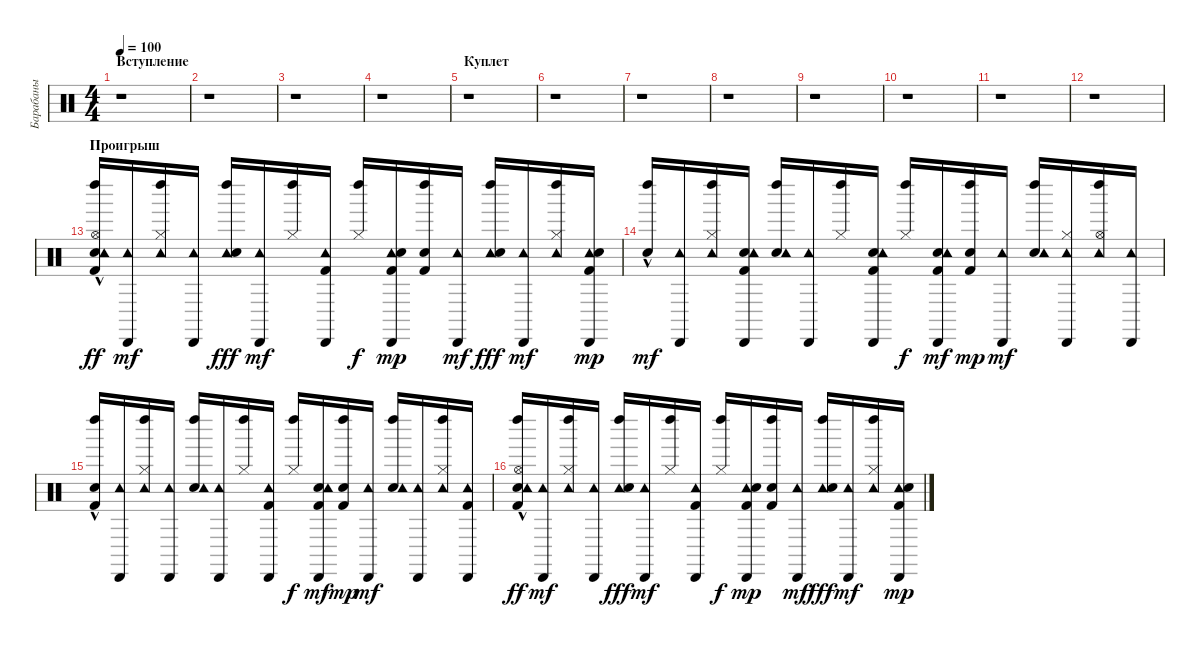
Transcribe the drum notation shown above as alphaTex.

\track ("Барабаны" "Барабаны") {instrument percussion}
\staff {score}
\articulation defaults
\ts (4 4)
\section ("" "Вступление")
\tempo 100
\clef neutral
\ks c
r.1{dy ff} |
r.1 |
r.1 |
r.1 |
\section ("" "Куплет")
r.1 |
r.1 |
r.1 |
r.1 |
r.1 |
r.1 |
r.1 |
r.1 |
\section ("" "Проигрыш")
("Electric Snare (hit)"{hac} "Tambourine (hit)" "Hi-Hat (open)" "Kick (hit) 2" "Left Maraca (hit)").16{balance 8} ("Tambourine (hit)" "Cabasa (hit)").16{dy mf} ("Tambourine (hit)" "Hi-Hat (closed)" "Left Maraca (hit)").16 ("Tambourine (hit)" "Cabasa (hit)").16 ("Tambourine (hit)" "Electric Snare (hit)" "Left Maraca (hit)").16{dy fff} ("Tambourine (hit)" "Cabasa (hit)").16{dy mf} ("Hi-Hat (closed)" "Left Maraca (hit)").16 ("Tambourine (hit)" "Cabasa (hit)" "Kick (hit) 2").16 ("Hi-Hat (closed)" "Left Maraca (hit)").16{dy f} ("Tambourine (hit)" "Electric Snare (hit)" "Kick (hit) 2" "Cabasa (hit)").16{dy mp} ("Electric Snare (hit)" "Left Maraca (hit)" "Kick (hit) 2").16 ("Tambourine (hit)" "Cabasa (hit)").16{dy mf} ("Tambourine (hit)" "Electric Snare (hit)" "Left Maraca (hit)").16{dy fff} ("Tambourine (hit)" "Cabasa (hit)").16{dy mf} ("Tambourine (hit)" "Hi-Hat (closed)" "Left Maraca (hit)").16 ("Tambourine (hit)" "Electric Snare (hit)" "Kick (hit) 2" "Cabasa (hit)").16{dy mp} |
("Electric Snare (hit)"{hac} "Left Maraca (hit)").16{dy mf balance 8} ("Cabasa (hit)" "Tambourine (hit)").16 ("Hi-Hat (closed)" "Left Maraca (hit)" "Tambourine (hit)").16 ("Electric Snare (hit)" "Kick (hit) 2" "Cabasa (hit)" "Tambourine (hit)").16 ("Electric Snare (hit)" "Left Maraca (hit)" "Tambourine (hit)").16 ("Cabasa (hit)" "Tambourine (hit)").16 ("Hi-Hat (closed)" "Left Maraca (hit)").16 ("Electric Snare (hit)" "Kick (hit) 2" "Cabasa (hit)" "Tambourine (hit)").16 ("Hi-Hat (closed)" "Left Maraca (hit)").16{dy f} ("Electric Snare (hit)" "Kick (hit) 2" "Cabasa (hit)" "Tambourine (hit)").16{dy mf} ("Electric Snare (hit)" "Left Maraca (hit)" "Kick (hit) 2").16{dy mp} ("Cabasa (hit)" "Tambourine (hit)").16{dy mf} ("Electric Snare (hit)" "Left Maraca (hit)" "Tambourine (hit)").16 ("Hi-Hat (closed)" "Cabasa (hit)" "Tambourine (hit)").16 ("Tambourine (hit)" "Hi-Hat (open)" "Left Maraca (hit)").16 ("Cabasa (hit)" "Tambourine (hit)").16 |
("Electric Snare (hit)"{hac} "Left Maraca (hit)" "Kick (hit) 2").16 ("Cabasa (hit)" "Tambourine (hit)").16 ("Hi-Hat (closed)" "Left Maraca (hit)" "Tambourine (hit)").16 ("Cabasa (hit)" "Tambourine (hit)").16 ("Electric Snare (hit)" "Left Maraca (hit)" "Tambourine (hit)").16 ("Cabasa (hit)" "Tambourine (hit)").16 ("Hi-Hat (closed)" "Left Maraca (hit)").16 ("Cabasa (hit)" "Kick (hit) 2" "Tambourine (hit)").16 ("Hi-Hat (closed)" "Left Maraca (hit)").16{dy f} ("Electric Snare (hit)" "Cabasa (hit)" "Kick (hit) 2" "Tambourine (hit)").16{dy mf} ("Electric Snare (hit)" "Left Maraca (hit)" "Kick (hit) 2").16{dy mp} ("Cabasa (hit)" "Tambourine (hit)").16{dy mf} ("Electric Snare (hit)" "Left Maraca (hit)" "Tambourine (hit)").16 ("Cabasa (hit)" "Tambourine (hit)").16 ("Hi-Hat (closed)" "Left Maraca (hit)" "Tambourine (hit)").16 ("Cabasa (hit)" "Kick (hit) 2" "Tambourine (hit)").16 |
("Electric Snare (hit)"{hac} "Tambourine (hit)" "Hi-Hat (open)" "Kick (hit) 2" "Left Maraca (hit)").16{dy ff} ("Tambourine (hit)" "Cabasa (hit)").16{dy mf} ("Tambourine (hit)" "Hi-Hat (closed)" "Left Maraca (hit)").16 ("Tambourine (hit)" "Cabasa (hit)").16 ("Tambourine (hit)" "Electric Snare (hit)" "Left Maraca (hit)").16{dy fff} ("Tambourine (hit)" "Cabasa (hit)").16{dy mf} ("Hi-Hat (closed)" "Left Maraca (hit)").16 ("Tambourine (hit)" "Cabasa (hit)" "Kick (hit) 2").16 ("Hi-Hat (closed)" "Left Maraca (hit)").16{dy f} ("Tambourine (hit)" "Electric Snare (hit)" "Kick (hit) 2" "Cabasa (hit)").16{dy mp} ("Electric Snare (hit)" "Left Maraca (hit)" "Kick (hit) 2").16 ("Tambourine (hit)" "Cabasa (hit)").16{dy mf} ("Tambourine (hit)" "Electric Snare (hit)" "Left Maraca (hit)").16{dy fff} ("Tambourine (hit)" "Cabasa (hit)").16{dy mf} ("Tambourine (hit)" "Hi-Hat (closed)" "Left Maraca (hit)").16 ("Tambourine (hit)" "Electric Snare (hit)" "Kick (hit) 2" "Cabasa (hit)").16{dy mp}
